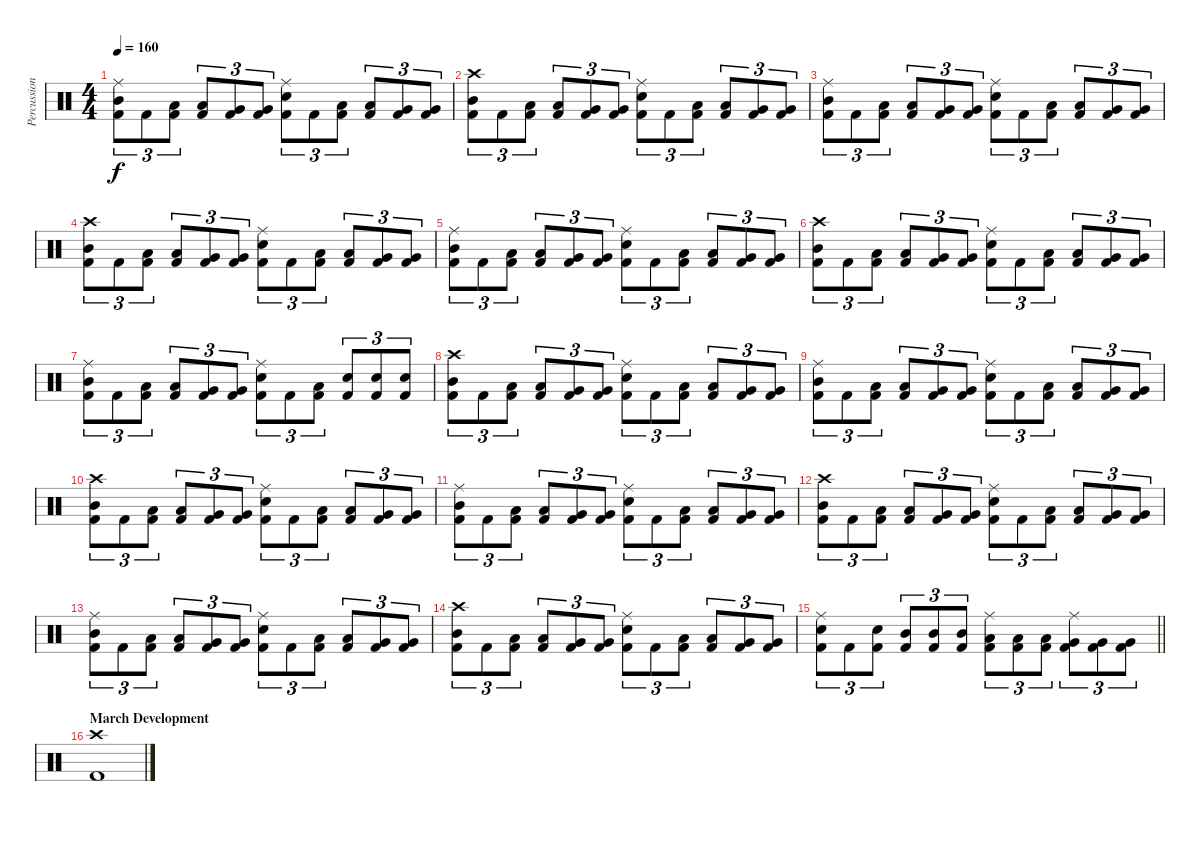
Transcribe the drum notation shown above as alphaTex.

\track ("Percussion" "Percussion") {instrument percussion}
\staff {score}
\articulation defaults
\ts (4 4)
\tempo 160
\clef neutral
\ks c
("Ride (middle)" "Mid Tom (hit)" "Kick (hit) 2").8{tu (3 2) dy f} "Kick (hit) 2".8{tu (3 2)} ("Low Tom (hit)" "Kick (hit) 2").8{tu (3 2)} ("Low Tom (hit)" "Kick (hit) 2").8{tu (3 2)} ("Very Low Tom (hit)" "Kick (hit) 2").8{tu (3 2)} ("Very Low Tom (hit)" "Kick (hit) 2").8{tu (3 2)} ("Ride (middle)" "Snare (hit) 2" "Kick (hit) 2").8{tu (3 2)} "Kick (hit) 2".8{tu (3 2)} ("Low Tom (hit)" "Kick (hit) 2").8{tu (3 2)} ("Low Tom (hit)" "Kick (hit) 2").8{tu (3 2)} ("Very Low Tom (hit)" "Kick (hit) 2").8{tu (3 2)} ("Very Low Tom (hit)" "Kick (hit) 2").8{tu (3 2)} |
("Crash high (hit)" "Mid Tom (hit)" "Kick (hit) 2").8{tu (3 2)} "Kick (hit) 2".8{tu (3 2)} ("Low Tom (hit)" "Kick (hit) 2").8{tu (3 2)} ("Low Tom (hit)" "Kick (hit) 2").8{tu (3 2)} ("Very Low Tom (hit)" "Kick (hit) 2").8{tu (3 2)} ("Very Low Tom (hit)" "Kick (hit) 2").8{tu (3 2)} ("Ride (middle)" "Snare (hit) 2" "Kick (hit) 2").8{tu (3 2)} "Kick (hit) 2".8{tu (3 2)} ("Low Tom (hit)" "Kick (hit) 2").8{tu (3 2)} ("Low Tom (hit)" "Kick (hit) 2").8{tu (3 2)} ("Very Low Tom (hit)" "Kick (hit) 2").8{tu (3 2)} ("Very Low Tom (hit)" "Kick (hit) 2").8{tu (3 2)} |
("Ride (middle)" "Mid Tom (hit)" "Kick (hit) 2").8{tu (3 2)} "Kick (hit) 2".8{tu (3 2)} ("Low Tom (hit)" "Kick (hit) 2").8{tu (3 2)} ("Low Tom (hit)" "Kick (hit) 2").8{tu (3 2)} ("Very Low Tom (hit)" "Kick (hit) 2").8{tu (3 2)} ("Very Low Tom (hit)" "Kick (hit) 2").8{tu (3 2)} ("Ride (middle)" "Snare (hit) 2" "Kick (hit) 2").8{tu (3 2)} "Kick (hit) 2".8{tu (3 2)} ("Low Tom (hit)" "Kick (hit) 2").8{tu (3 2)} ("Low Tom (hit)" "Kick (hit) 2").8{tu (3 2)} ("Very Low Tom (hit)" "Kick (hit) 2").8{tu (3 2)} ("Very Low Tom (hit)" "Kick (hit) 2").8{tu (3 2)} |
("Crash high (hit)" "Mid Tom (hit)" "Kick (hit) 2").8{tu (3 2)} "Kick (hit) 2".8{tu (3 2)} ("Low Tom (hit)" "Kick (hit) 2").8{tu (3 2)} ("Low Tom (hit)" "Kick (hit) 2").8{tu (3 2)} ("Very Low Tom (hit)" "Kick (hit) 2").8{tu (3 2)} ("Very Low Tom (hit)" "Kick (hit) 2").8{tu (3 2)} ("Ride (middle)" "Snare (hit) 2" "Kick (hit) 2").8{tu (3 2)} "Kick (hit) 2".8{tu (3 2)} ("Low Tom (hit)" "Kick (hit) 2").8{tu (3 2)} ("Low Tom (hit)" "Kick (hit) 2").8{tu (3 2)} ("Very Low Tom (hit)" "Kick (hit) 2").8{tu (3 2)} ("Very Low Tom (hit)" "Kick (hit) 2").8{tu (3 2)} |
("Ride (middle)" "Mid Tom (hit)" "Kick (hit) 2").8{tu (3 2)} "Kick (hit) 2".8{tu (3 2)} ("Low Tom (hit)" "Kick (hit) 2").8{tu (3 2)} ("Low Tom (hit)" "Kick (hit) 2").8{tu (3 2)} ("Very Low Tom (hit)" "Kick (hit) 2").8{tu (3 2)} ("Very Low Tom (hit)" "Kick (hit) 2").8{tu (3 2)} ("Ride (middle)" "Snare (hit) 2" "Kick (hit) 2").8{tu (3 2)} "Kick (hit) 2".8{tu (3 2)} ("Low Tom (hit)" "Kick (hit) 2").8{tu (3 2)} ("Low Tom (hit)" "Kick (hit) 2").8{tu (3 2)} ("Very Low Tom (hit)" "Kick (hit) 2").8{tu (3 2)} ("Very Low Tom (hit)" "Kick (hit) 2").8{tu (3 2)} |
("Crash high (hit)" "Mid Tom (hit)" "Kick (hit) 2").8{tu (3 2)} "Kick (hit) 2".8{tu (3 2)} ("Low Tom (hit)" "Kick (hit) 2").8{tu (3 2)} ("Low Tom (hit)" "Kick (hit) 2").8{tu (3 2)} ("Very Low Tom (hit)" "Kick (hit) 2").8{tu (3 2)} ("Very Low Tom (hit)" "Kick (hit) 2").8{tu (3 2)} ("Ride (middle)" "Snare (hit) 2" "Kick (hit) 2").8{tu (3 2)} "Kick (hit) 2".8{tu (3 2)} ("Low Tom (hit)" "Kick (hit) 2").8{tu (3 2)} ("Low Tom (hit)" "Kick (hit) 2").8{tu (3 2)} ("Very Low Tom (hit)" "Kick (hit) 2").8{tu (3 2)} ("Very Low Tom (hit)" "Kick (hit) 2").8{tu (3 2)} |
("Ride (middle)" "Mid Tom (hit)" "Kick (hit) 2").8{tu (3 2)} "Kick (hit) 2".8{tu (3 2)} ("Low Tom (hit)" "Kick (hit) 2").8{tu (3 2)} ("Low Tom (hit)" "Kick (hit) 2").8{tu (3 2)} ("Very Low Tom (hit)" "Kick (hit) 2").8{tu (3 2)} ("Very Low Tom (hit)" "Kick (hit) 2").8{tu (3 2)} ("Ride (middle)" "Snare (hit) 2" "Kick (hit) 2").8{tu (3 2)} "Kick (hit) 2".8{tu (3 2)} ("Low Tom (hit)" "Kick (hit) 2").8{tu (3 2)} ("Snare (hit) 2" "Kick (hit) 2").8{tu (3 2)} ("Snare (hit) 2" "Kick (hit) 2").8{tu (3 2)} ("Snare (hit) 2" "Kick (hit) 2").8{tu (3 2)} |
("Crash high (hit)" "Mid Tom (hit)" "Kick (hit) 2").8{tu (3 2)} "Kick (hit) 2".8{tu (3 2)} ("Low Tom (hit)" "Kick (hit) 2").8{tu (3 2)} ("Low Tom (hit)" "Kick (hit) 2").8{tu (3 2)} ("Very Low Tom (hit)" "Kick (hit) 2").8{tu (3 2)} ("Very Low Tom (hit)" "Kick (hit) 2").8{tu (3 2)} ("Ride (middle)" "Snare (hit) 2" "Kick (hit) 2").8{tu (3 2)} "Kick (hit) 2".8{tu (3 2)} ("Low Tom (hit)" "Kick (hit) 2").8{tu (3 2)} ("Low Tom (hit)" "Kick (hit) 2").8{tu (3 2)} ("Very Low Tom (hit)" "Kick (hit) 2").8{tu (3 2)} ("Very Low Tom (hit)" "Kick (hit) 2").8{tu (3 2)} |
("Ride (middle)" "Mid Tom (hit)" "Kick (hit) 2").8{tu (3 2)} "Kick (hit) 2".8{tu (3 2)} ("Low Tom (hit)" "Kick (hit) 2").8{tu (3 2)} ("Low Tom (hit)" "Kick (hit) 2").8{tu (3 2)} ("Very Low Tom (hit)" "Kick (hit) 2").8{tu (3 2)} ("Very Low Tom (hit)" "Kick (hit) 2").8{tu (3 2)} ("Ride (middle)" "Snare (hit) 2" "Kick (hit) 2").8{tu (3 2)} "Kick (hit) 2".8{tu (3 2)} ("Low Tom (hit)" "Kick (hit) 2").8{tu (3 2)} ("Low Tom (hit)" "Kick (hit) 2").8{tu (3 2)} ("Very Low Tom (hit)" "Kick (hit) 2").8{tu (3 2)} ("Very Low Tom (hit)" "Kick (hit) 2").8{tu (3 2)} |
("Crash high (hit)" "Mid Tom (hit)" "Kick (hit) 2").8{tu (3 2)} "Kick (hit) 2".8{tu (3 2)} ("Low Tom (hit)" "Kick (hit) 2").8{tu (3 2)} ("Low Tom (hit)" "Kick (hit) 2").8{tu (3 2)} ("Very Low Tom (hit)" "Kick (hit) 2").8{tu (3 2)} ("Very Low Tom (hit)" "Kick (hit) 2").8{tu (3 2)} ("Ride (middle)" "Snare (hit) 2" "Kick (hit) 2").8{tu (3 2)} "Kick (hit) 2".8{tu (3 2)} ("Low Tom (hit)" "Kick (hit) 2").8{tu (3 2)} ("Low Tom (hit)" "Kick (hit) 2").8{tu (3 2)} ("Very Low Tom (hit)" "Kick (hit) 2").8{tu (3 2)} ("Very Low Tom (hit)" "Kick (hit) 2").8{tu (3 2)} |
("Ride (middle)" "Mid Tom (hit)" "Kick (hit) 2").8{tu (3 2)} "Kick (hit) 2".8{tu (3 2)} ("Low Tom (hit)" "Kick (hit) 2").8{tu (3 2)} ("Low Tom (hit)" "Kick (hit) 2").8{tu (3 2)} ("Very Low Tom (hit)" "Kick (hit) 2").8{tu (3 2)} ("Very Low Tom (hit)" "Kick (hit) 2").8{tu (3 2)} ("Ride (middle)" "Snare (hit) 2" "Kick (hit) 2").8{tu (3 2)} "Kick (hit) 2".8{tu (3 2)} ("Low Tom (hit)" "Kick (hit) 2").8{tu (3 2)} ("Low Tom (hit)" "Kick (hit) 2").8{tu (3 2)} ("Very Low Tom (hit)" "Kick (hit) 2").8{tu (3 2)} ("Very Low Tom (hit)" "Kick (hit) 2").8{tu (3 2)} |
("Crash high (hit)" "Mid Tom (hit)" "Kick (hit) 2").8{tu (3 2)} "Kick (hit) 2".8{tu (3 2)} ("Low Tom (hit)" "Kick (hit) 2").8{tu (3 2)} ("Low Tom (hit)" "Kick (hit) 2").8{tu (3 2)} ("Very Low Tom (hit)" "Kick (hit) 2").8{tu (3 2)} ("Very Low Tom (hit)" "Kick (hit) 2").8{tu (3 2)} ("Ride (middle)" "Snare (hit) 2" "Kick (hit) 2").8{tu (3 2)} "Kick (hit) 2".8{tu (3 2)} ("Low Tom (hit)" "Kick (hit) 2").8{tu (3 2)} ("Low Tom (hit)" "Kick (hit) 2").8{tu (3 2)} ("Very Low Tom (hit)" "Kick (hit) 2").8{tu (3 2)} ("Very Low Tom (hit)" "Kick (hit) 2").8{tu (3 2)} |
("Ride (middle)" "Mid Tom (hit)" "Kick (hit) 2").8{tu (3 2)} "Kick (hit) 2".8{tu (3 2)} ("Low Tom (hit)" "Kick (hit) 2").8{tu (3 2)} ("Low Tom (hit)" "Kick (hit) 2").8{tu (3 2)} ("Very Low Tom (hit)" "Kick (hit) 2").8{tu (3 2)} ("Very Low Tom (hit)" "Kick (hit) 2").8{tu (3 2)} ("Ride (middle)" "Snare (hit) 2" "Kick (hit) 2").8{tu (3 2)} "Kick (hit) 2".8{tu (3 2)} ("Low Tom (hit)" "Kick (hit) 2").8{tu (3 2)} ("Low Tom (hit)" "Kick (hit) 2").8{tu (3 2)} ("Very Low Tom (hit)" "Kick (hit) 2").8{tu (3 2)} ("Very Low Tom (hit)" "Kick (hit) 2").8{tu (3 2)} |
("Crash high (hit)" "Mid Tom (hit)" "Kick (hit) 2").8{tu (3 2)} "Kick (hit) 2".8{tu (3 2)} ("Low Tom (hit)" "Kick (hit) 2").8{tu (3 2)} ("Low Tom (hit)" "Kick (hit) 2").8{tu (3 2)} ("Very Low Tom (hit)" "Kick (hit) 2").8{tu (3 2)} ("Very Low Tom (hit)" "Kick (hit) 2").8{tu (3 2)} ("Ride (middle)" "Snare (hit) 2" "Kick (hit) 2").8{tu (3 2)} "Kick (hit) 2".8{tu (3 2)} ("Low Tom (hit)" "Kick (hit) 2").8{tu (3 2)} ("Low Tom (hit)" "Kick (hit) 2").8{tu (3 2)} ("Very Low Tom (hit)" "Kick (hit) 2").8{tu (3 2)} ("Very Low Tom (hit)" "Kick (hit) 2").8{tu (3 2)} |
\barLineRight lightlight
("Ride (middle)" "Snare (hit) 2" "Kick (hit) 2").8{tu (3 2)} "Kick (hit) 2".8{tu (3 2)} ("Snare (hit) 2" "Kick (hit) 2").8{tu (3 2)} ("Mid Tom (hit)" "Kick (hit) 2").8{tu (3 2)} ("Mid Tom (hit)" "Kick (hit) 2").8{tu (3 2)} ("Mid Tom (hit)" "Kick (hit) 2").8{tu (3 2)} ("Ride (middle)" "Low Tom (hit)" "Kick (hit) 2").8{tu (3 2)} ("Low Tom (hit)" "Kick (hit) 2").8{tu (3 2)} ("Low Tom (hit)" "Kick (hit) 2").8{tu (3 2)} ("Ride (middle)" "Very Low Tom (hit)" "Kick (hit) 2").8{tu (3 2)} ("Very Low Tom (hit)" "Kick (hit) 2").8{tu (3 2)} ("Very Low Tom (hit)" "Kick (hit) 2").8{tu (3 2)} |
\section ("" "March Development")
("Crash high (hit)" "Kick (hit) 2").1
